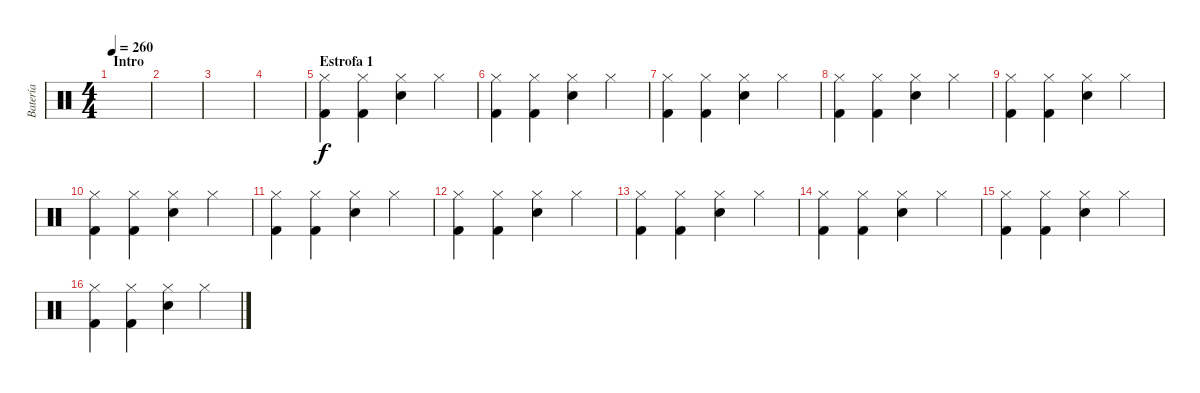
\track ("Batería" "Batería") {instrument percussion}
\staff {score}
\articulation defaults
\ts (4 4)
\section ("" "Intro")
\tempo 260
\clef neutral
\ks c
|
|
|
|
\section ("" "Estrofa 1")
("Kick (hit) 2" "Hi-Hat (closed)").4 ("Kick (hit) 2" "Hi-Hat (closed)").4 ("Snare (hit) 2" "Hi-Hat (closed)").4 "Hi-Hat (closed)".4 |
("Kick (hit) 2" "Hi-Hat (closed)").4 ("Kick (hit) 2" "Hi-Hat (closed)").4 ("Snare (hit) 2" "Hi-Hat (closed)").4 "Hi-Hat (closed)".4 |
("Kick (hit) 2" "Hi-Hat (closed)").4 ("Kick (hit) 2" "Hi-Hat (closed)").4 ("Snare (hit) 2" "Hi-Hat (closed)").4 "Hi-Hat (closed)".4 |
("Kick (hit) 2" "Hi-Hat (closed)").4 ("Kick (hit) 2" "Hi-Hat (closed)").4 ("Snare (hit) 2" "Hi-Hat (closed)").4 "Hi-Hat (closed)".4 |
("Kick (hit) 2" "Hi-Hat (closed)").4 ("Kick (hit) 2" "Hi-Hat (closed)").4 ("Snare (hit) 2" "Hi-Hat (closed)").4 "Hi-Hat (closed)".4 |
("Kick (hit) 2" "Hi-Hat (closed)").4 ("Kick (hit) 2" "Hi-Hat (closed)").4 ("Snare (hit) 2" "Hi-Hat (closed)").4 "Hi-Hat (closed)".4 |
("Kick (hit) 2" "Hi-Hat (closed)").4 ("Kick (hit) 2" "Hi-Hat (closed)").4 ("Snare (hit) 2" "Hi-Hat (closed)").4 "Hi-Hat (closed)".4 |
("Kick (hit) 2" "Hi-Hat (closed)").4 ("Kick (hit) 2" "Hi-Hat (closed)").4 ("Snare (hit) 2" "Hi-Hat (closed)").4 "Hi-Hat (closed)".4 |
("Kick (hit) 2" "Hi-Hat (closed)").4 ("Kick (hit) 2" "Hi-Hat (closed)").4 ("Snare (hit) 2" "Hi-Hat (closed)").4 "Hi-Hat (closed)".4 |
("Kick (hit) 2" "Hi-Hat (closed)").4 ("Kick (hit) 2" "Hi-Hat (closed)").4 ("Snare (hit) 2" "Hi-Hat (closed)").4 "Hi-Hat (closed)".4 |
("Kick (hit) 2" "Hi-Hat (closed)").4 ("Kick (hit) 2" "Hi-Hat (closed)").4 ("Snare (hit) 2" "Hi-Hat (closed)").4 "Hi-Hat (closed)".4 |
("Kick (hit) 2" "Hi-Hat (closed)").4 ("Kick (hit) 2" "Hi-Hat (closed)").4 ("Snare (hit) 2" "Hi-Hat (closed)").4 "Hi-Hat (closed)".4
